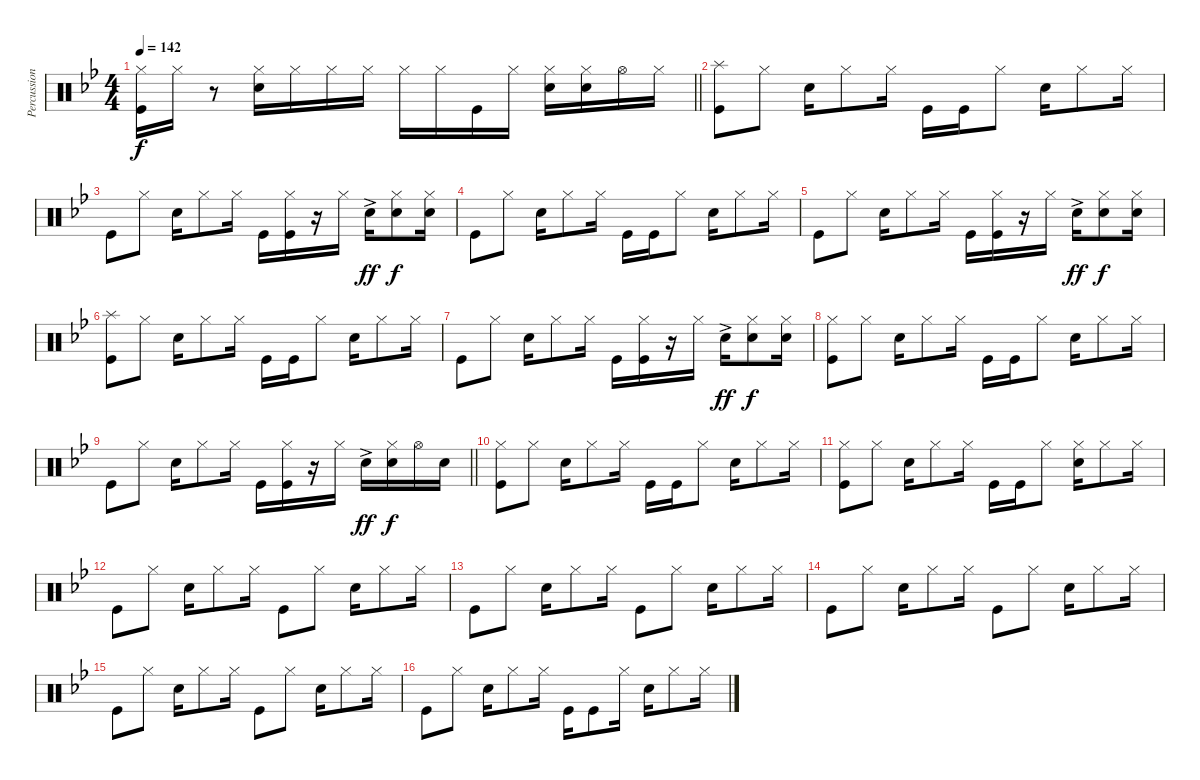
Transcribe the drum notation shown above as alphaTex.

\track ("Percussion" "Percussion") {instrument percussion}
\staff {score}
\articulation defaults
\ts (4 4)
\tempo 142
\clef neutral
\barLineRight lightlight
\ks gminor
("Hi-Hat (closed)" "Kick (hit)").16{dy f} "Hi-Hat (closed)".16 r.8 ("Hi-Hat (closed)" "Snare (hit) 2").16 "Hi-Hat (closed)".16 "Hi-Hat (closed)".16 "Hi-Hat (closed)".16 "Hi-Hat (closed)".16 "Hi-Hat (closed)".16 "Kick (hit)".16 "Hi-Hat (closed)".16 ("Hi-Hat (closed)" "Snare (hit) 2").16 ("Hi-Hat (closed)" "Snare (hit) 2").16 "Hi-Hat (open)".16 "Hi-Hat (closed)".16 |
("Splash (hit)" "Kick (hit)").8 "Hi-Hat (closed)".8 "Snare (hit) 2".16 "Hi-Hat (closed)".8 "Hi-Hat (closed)".16 "Kick (hit)".16 "Kick (hit)".16 "Hi-Hat (closed)".8 "Snare (hit) 2".16 "Hi-Hat (closed)".8 "Hi-Hat (closed)".16 |
"Kick (hit)".8 "Hi-Hat (closed)".8 "Snare (hit) 2".16 "Hi-Hat (closed)".8 "Hi-Hat (closed)".16 "Kick (hit)".16 ("Hi-Hat (closed)" "Kick (hit)").16 r.16 "Hi-Hat (closed)".16 "Snare (hit) 2"{ac}.16{dy ff} ("Hi-Hat (closed)" "Snare (hit) 2").8{dy f} ("Hi-Hat (closed)" "Snare (hit) 2").16 |
"Kick (hit)".8 "Hi-Hat (closed)".8 "Snare (hit) 2".16 "Hi-Hat (closed)".8 "Hi-Hat (closed)".16 "Kick (hit)".16 "Kick (hit)".16 "Hi-Hat (closed)".8 "Snare (hit) 2".16 "Hi-Hat (closed)".8 "Hi-Hat (closed)".16 |
"Kick (hit)".8 "Hi-Hat (closed)".8 "Snare (hit) 2".16 "Hi-Hat (closed)".8 "Hi-Hat (closed)".16 "Kick (hit)".16 ("Hi-Hat (closed)" "Kick (hit)").16 r.16 "Hi-Hat (closed)".16 "Snare (hit) 2"{ac}.16{dy ff} ("Hi-Hat (closed)" "Snare (hit) 2").8{dy f} ("Hi-Hat (closed)" "Snare (hit) 2").16 |
("Splash (hit)" "Kick (hit)").8 "Hi-Hat (closed)".8 "Snare (hit) 2".16 "Hi-Hat (closed)".8 "Hi-Hat (closed)".16 "Kick (hit)".16 "Kick (hit)".16 "Hi-Hat (closed)".8 "Snare (hit) 2".16 "Hi-Hat (closed)".8 "Hi-Hat (closed)".16 |
"Kick (hit)".8 "Hi-Hat (closed)".8 "Snare (hit) 2".16 "Hi-Hat (closed)".8 "Hi-Hat (closed)".16 "Kick (hit)".16 ("Hi-Hat (closed)" "Kick (hit)").16 r.16 "Hi-Hat (closed)".16 "Snare (hit) 2"{ac}.16{dy ff} ("Hi-Hat (closed)" "Snare (hit) 2").8{dy f} ("Hi-Hat (closed)" "Snare (hit) 2").16 |
("Hi-Hat (closed)" "Kick (hit)").8 "Hi-Hat (closed)".8 "Snare (hit) 2".16 "Hi-Hat (closed)".8 "Hi-Hat (closed)".16 "Kick (hit)".16 "Kick (hit)".16 "Hi-Hat (closed)".8 "Snare (hit) 2".16 "Hi-Hat (closed)".8 "Hi-Hat (closed)".16 |
\barLineRight lightlight "Kick (hit)".8 "Hi-Hat (closed)".8 "Snare (hit) 2".16 "Hi-Hat (closed)".8 "Hi-Hat (closed)".16 "Kick (hit)".16
("Hi-Hat (closed)" "Kick (hit)").16 r.16 "Hi-Hat (closed)".16 "Snare (hit) 2"{ac}.16{dy ff} ("Hi-Hat (closed)" "Snare (hit) 2").16{dy f} "Hi-Hat (open)".16 "Snare (hit) 2".16 |
("Hi-Hat (closed)" "Kick (hit)").8 "Hi-Hat (closed)".8 "Snare (hit) 2".16 "Hi-Hat (closed)".8 "Hi-Hat (closed)".16 "Kick (hit)".16 "Kick (hit)".16 "Hi-Hat (closed)".8 "Snare (hit) 2".16 "Hi-Hat (closed)".8 "Hi-Hat (closed)".16 |
("Hi-Hat (closed)" "Kick (hit)").8 "Hi-Hat (closed)".8 "Snare (hit) 2".16 "Hi-Hat (closed)".8 "Hi-Hat (closed)".16 "Kick (hit)".16 "Kick (hit)".16 "Hi-Hat (closed)".8 ("Hi-Hat (closed)" "Snare (hit) 2").16 "Hi-Hat (closed)".8 "Hi-Hat (closed)".16 |
"Kick (hit)".8 "Hi-Hat (closed)".8 "Snare (hit) 2".16 "Hi-Hat (closed)".8 "Hi-Hat (closed)".16 "Kick (hit)".8 "Hi-Hat (closed)".8 "Snare (hit) 2".16 "Hi-Hat (closed)".8 "Hi-Hat (closed)".16 |
"Kick (hit)".8 "Hi-Hat (closed)".8 "Snare (hit) 2".16 "Hi-Hat (closed)".8 "Hi-Hat (closed)".16 "Kick (hit)".8 "Hi-Hat (closed)".8 "Snare (hit) 2".16 "Hi-Hat (closed)".8 "Hi-Hat (closed)".16 |
"Kick (hit)".8 "Hi-Hat (closed)".8 "Snare (hit) 2".16 "Hi-Hat (closed)".8 "Hi-Hat (closed)".16 "Kick (hit)".8 "Hi-Hat (closed)".8 "Snare (hit) 2".16 "Hi-Hat (closed)".8 "Hi-Hat (closed)".16 |
"Kick (hit)".8 "Hi-Hat (closed)".8 "Snare (hit) 2".16 "Hi-Hat (closed)".8 "Hi-Hat (closed)".16 "Kick (hit)".8 "Hi-Hat (closed)".8 "Snare (hit) 2".16 "Hi-Hat (closed)".8 "Hi-Hat (closed)".16 |
"Kick (hit)".8 "Hi-Hat (closed)".8 "Snare (hit) 2".16 "Hi-Hat (closed)".8 "Hi-Hat (closed)".16 "Kick (hit)".16 "Kick (hit)".8 "Hi-Hat (closed)".16 "Snare (hit) 2".16 "Hi-Hat (closed)".8 "Hi-Hat (closed)".16
